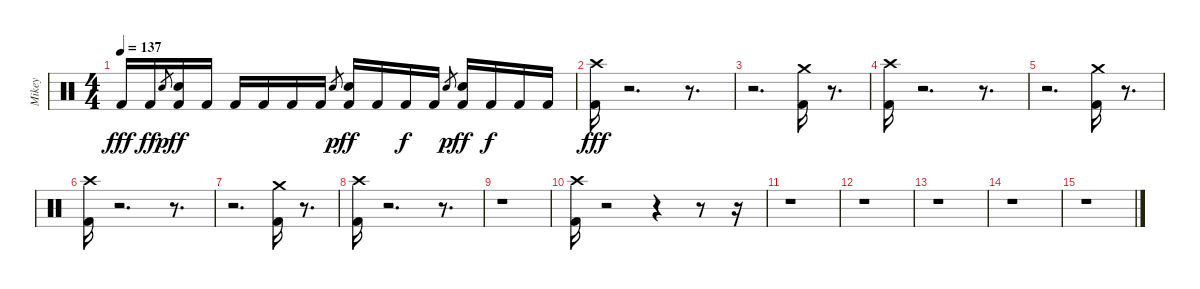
\track ("Mikey" "Mikey") {instrument percussion}
\staff {score}
\articulation defaults
\ts (4 4)
\tempo 137
\clef neutral
\ks c "Kick (hit) 2".16{dy fff} "Kick (hit) 2".16{dy ff} "Electric Snare (hit)".8{gr dy p}
("Electric Snare (hit)" "Kick (hit) 2").16{dy ff} "Kick (hit) 2".16 "Kick (hit) 2".16 "Kick (hit) 2".16 "Kick (hit) 2".16 "Kick (hit) 2".16 "Electric Snare (hit)".8{gr dy p} ("Electric Snare (hit)" "Kick (hit) 2").16{dy ff} "Kick (hit) 2".16 "Kick (hit) 2".16{dy f} "Kick (hit) 2".16 "Electric Snare (hit)".8{gr dy p} ("Electric Snare (hit)" "Kick (hit) 2").16{dy ff} "Kick (hit) 2".16{dy f} "Kick (hit) 2".16 "Kick (hit) 2".16 |
("Crash high (hit)" "Kick (hit) 2").16{dy fff} r.2{d} r.8{d} |
r.2{d} ("Crash medium (hit)" "Kick (hit) 2").16 r.8{d} |
("Kick (hit) 2" "Crash high (hit)").16 r.2{d} r.8{d} |
r.2{d} ("Crash medium (hit)" "Kick (hit) 2").16 r.8{d} |
("Kick (hit) 2" "Crash high (hit)").16 r.2{d} r.8{d} |
r.2{d} ("Crash medium (hit)" "Kick (hit) 2").16 r.8{d} |
("Kick (hit) 2" "Crash high (hit)").16 r.2{d} r.8{d} |
r.1 |
("Kick (hit) 2" "Crash high (hit)").16 r.2 r.4 r.8 r.16 |
r.1 |
r.1 |
r.1 |
r.1 |
r.1
